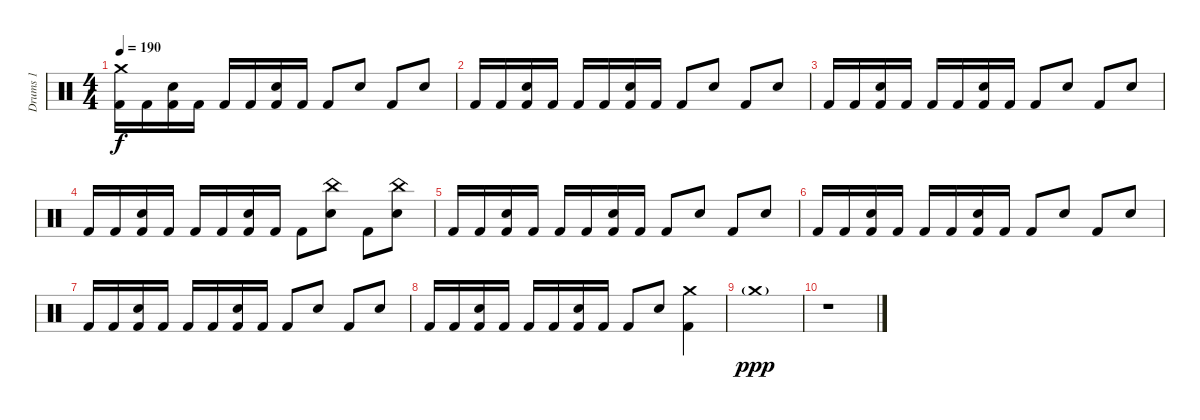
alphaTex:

\track ("Drums 1" "Drums 1") {instrument percussion}
\staff {score}
\articulation defaults
\ts (4 4)
\tempo 190
\clef neutral
\ks c
("Crash medium (hit)" "Kick (hit) 2").16{dy f} "Kick (hit) 2".16 ("Snare (hit) 2" "Kick (hit) 2").16 "Kick (hit) 2".16 "Kick (hit) 2".16 "Kick (hit) 2".16 ("Snare (hit) 2" "Kick (hit) 2").16 "Kick (hit) 2".16 "Kick (hit) 2".8 "Snare (hit) 2".8 "Kick (hit) 2".8 "Snare (hit) 2".8 |
"Kick (hit) 2".16 "Kick (hit) 2".16 ("Snare (hit) 2" "Kick (hit) 2").16 "Kick (hit) 2".16 "Kick (hit) 2".16 "Kick (hit) 2".16 ("Snare (hit) 2" "Kick (hit) 2").16 "Kick (hit) 2".16 "Kick (hit) 2".8 "Snare (hit) 2".8 "Kick (hit) 2".8 "Snare (hit) 2".8 |
"Kick (hit) 2".16 "Kick (hit) 2".16 ("Snare (hit) 2" "Kick (hit) 2").16 "Kick (hit) 2".16 "Kick (hit) 2".16 "Kick (hit) 2".16 ("Snare (hit) 2" "Kick (hit) 2").16 "Kick (hit) 2".16 "Kick (hit) 2".8 "Snare (hit) 2".8 "Kick (hit) 2".8 "Snare (hit) 2".8 |
"Kick (hit) 2".16 "Kick (hit) 2".16 ("Snare (hit) 2" "Kick (hit) 2").16 "Kick (hit) 2".16 "Kick (hit) 2".16 "Kick (hit) 2".16 ("Snare (hit) 2" "Kick (hit) 2").16 "Kick (hit) 2".16 "Kick (hit) 2".8 ("China (hit)" "Snare (hit) 2").8 "Kick (hit) 2".8 ("China (hit)" "Snare (hit) 2").8 |
"Kick (hit) 2".16 "Kick (hit) 2".16 ("Snare (hit) 2" "Kick (hit) 2").16 "Kick (hit) 2".16 "Kick (hit) 2".16 "Kick (hit) 2".16 ("Snare (hit) 2" "Kick (hit) 2").16 "Kick (hit) 2".16 "Kick (hit) 2".8 "Snare (hit) 2".8 "Kick (hit) 2".8 "Snare (hit) 2".8 |
"Kick (hit) 2".16 "Kick (hit) 2".16 ("Snare (hit) 2" "Kick (hit) 2").16 "Kick (hit) 2".16 "Kick (hit) 2".16 "Kick (hit) 2".16 ("Snare (hit) 2" "Kick (hit) 2").16 "Kick (hit) 2".16 "Kick (hit) 2".8 "Snare (hit) 2".8 "Kick (hit) 2".8 "Snare (hit) 2".8 |
"Kick (hit) 2".16 "Kick (hit) 2".16 ("Snare (hit) 2" "Kick (hit) 2").16 "Kick (hit) 2".16 "Kick (hit) 2".16 "Kick (hit) 2".16 ("Snare (hit) 2" "Kick (hit) 2").16 "Kick (hit) 2".16 "Kick (hit) 2".8 "Snare (hit) 2".8 "Kick (hit) 2".8 "Snare (hit) 2".8 |
"Kick (hit) 2".16 "Kick (hit) 2".16 ("Snare (hit) 2" "Kick (hit) 2").16 "Kick (hit) 2".16 "Kick (hit) 2".16 "Kick (hit) 2".16 ("Snare (hit) 2" "Kick (hit) 2").16 "Kick (hit) 2".16 "Kick (hit) 2".8 "Snare (hit) 2".8 ("Crash medium (hit)" "Kick (hit) 2").4 |
"Crash medium (hit)"{g}.1{dy ppp} |
r.1
